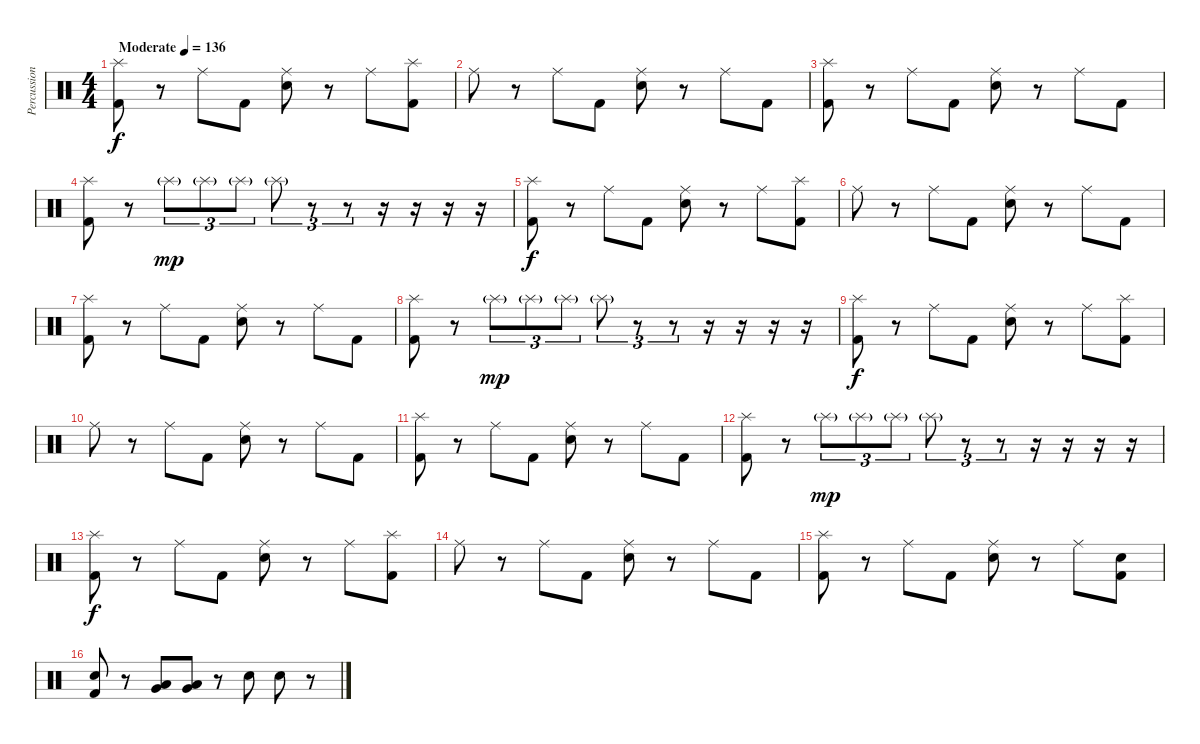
\track ("Percussion" "Percussion") {instrument percussion}
\staff {score}
\articulation defaults
\ts (4 4)
\tempo (136 "Moderate")
\clef neutral
\ks c
("Splash (hit)" "Kick (hit) 2").8{dy f} r.8 "Ride (middle)".8 "Kick (hit) 2".8 ("Ride (middle)" "Snare (hit) 2").8 r.8 "Ride (middle)".8 ("Splash (hit)" "Kick (hit) 2").8 |
"Ride (middle)".8 r.8 "Ride (middle)".8 "Kick (hit) 2".8 ("Ride (middle)" "Snare (hit) 2").8 r.8 "Ride (middle)".8 "Kick (hit) 2".8 |
("Splash (hit)" "Kick (hit) 2").8 r.8 "Ride (middle)".8 "Kick (hit) 2".8 ("Ride (middle)" "Snare (hit) 2").8 r.8 "Ride (middle)".8 "Kick (hit) 2".8 |
("Splash (hit)" "Kick (hit) 2").8 r.8 "Splash (hit)"{g}.8{tu (3 2) dy mp} "Splash (hit)"{g}.8{tu (3 2)} "Splash (hit)"{g}.8{tu (3 2)} "Splash (hit)"{g}.8{tu (3 2)} r.8{tu (3 2)} r.8{tu (3 2)} r.16 r.16 r.16 r.16 |
("Splash (hit)" "Kick (hit) 2").8{dy f} r.8 "Ride (middle)".8 "Kick (hit) 2".8 ("Ride (middle)" "Snare (hit) 2").8 r.8 "Ride (middle)".8 ("Splash (hit)" "Kick (hit) 2").8 |
"Ride (middle)".8 r.8 "Ride (middle)".8 "Kick (hit) 2".8 ("Ride (middle)" "Snare (hit) 2").8 r.8 "Ride (middle)".8 "Kick (hit) 2".8 |
("Splash (hit)" "Kick (hit) 2").8 r.8 "Ride (middle)".8 "Kick (hit) 2".8 ("Ride (middle)" "Snare (hit) 2").8 r.8 "Ride (middle)".8 "Kick (hit) 2".8 |
("Splash (hit)" "Kick (hit) 2").8 r.8 "Splash (hit)"{g}.8{tu (3 2) dy mp} "Splash (hit)"{g}.8{tu (3 2)} "Splash (hit)"{g}.8{tu (3 2)} "Splash (hit)"{g}.8{tu (3 2)} r.8{tu (3 2)} r.8{tu (3 2)} r.16 r.16 r.16 r.16 |
("Splash (hit)" "Kick (hit) 2").8{dy f} r.8 "Ride (middle)".8 "Kick (hit) 2".8 ("Ride (middle)" "Snare (hit) 2").8 r.8 "Ride (middle)".8 ("Splash (hit)" "Kick (hit) 2").8 |
"Ride (middle)".8 r.8 "Ride (middle)".8 "Kick (hit) 2".8 ("Ride (middle)" "Snare (hit) 2").8 r.8 "Ride (middle)".8 "Kick (hit) 2".8 |
("Splash (hit)" "Kick (hit) 2").8 r.8 "Ride (middle)".8 "Kick (hit) 2".8 ("Ride (middle)" "Snare (hit) 2").8 r.8 "Ride (middle)".8 "Kick (hit) 2".8 |
("Splash (hit)" "Kick (hit) 2").8 r.8 "Splash (hit)"{g}.8{tu (3 2) dy mp} "Splash (hit)"{g}.8{tu (3 2)} "Splash (hit)"{g}.8{tu (3 2)} "Splash (hit)"{g}.8{tu (3 2)} r.8{tu (3 2)} r.8{tu (3 2)} r.16 r.16 r.16 r.16 |
("Splash (hit)" "Kick (hit) 2").8{dy f} r.8 "Ride (middle)".8 "Kick (hit) 2".8 ("Ride (middle)" "Snare (hit) 2").8 r.8 "Ride (middle)".8 ("Splash (hit)" "Kick (hit) 2").8 |
"Ride (middle)".8 r.8 "Ride (middle)".8 "Kick (hit) 2".8 ("Ride (middle)" "Snare (hit) 2").8 r.8 "Ride (middle)".8 "Kick (hit) 2".8 |
("Splash (hit)" "Kick (hit) 2").8 r.8 "Ride (middle)".8 "Kick (hit) 2".8 ("Ride (middle)" "Snare (hit) 2").8 r.8 "Ride (middle)".8 ("Snare (hit) 2" "Kick (hit) 2").8 |
("Snare (hit) 2" "Kick (hit) 2").8 r.8 ("Very Low Tom (hit)" "Low Tom (hit)").8 ("Very Low Tom (hit)" "Low Tom (hit)").8 r.8 "Snare (hit) 2".8 "Snare (hit) 2".8 r.8
